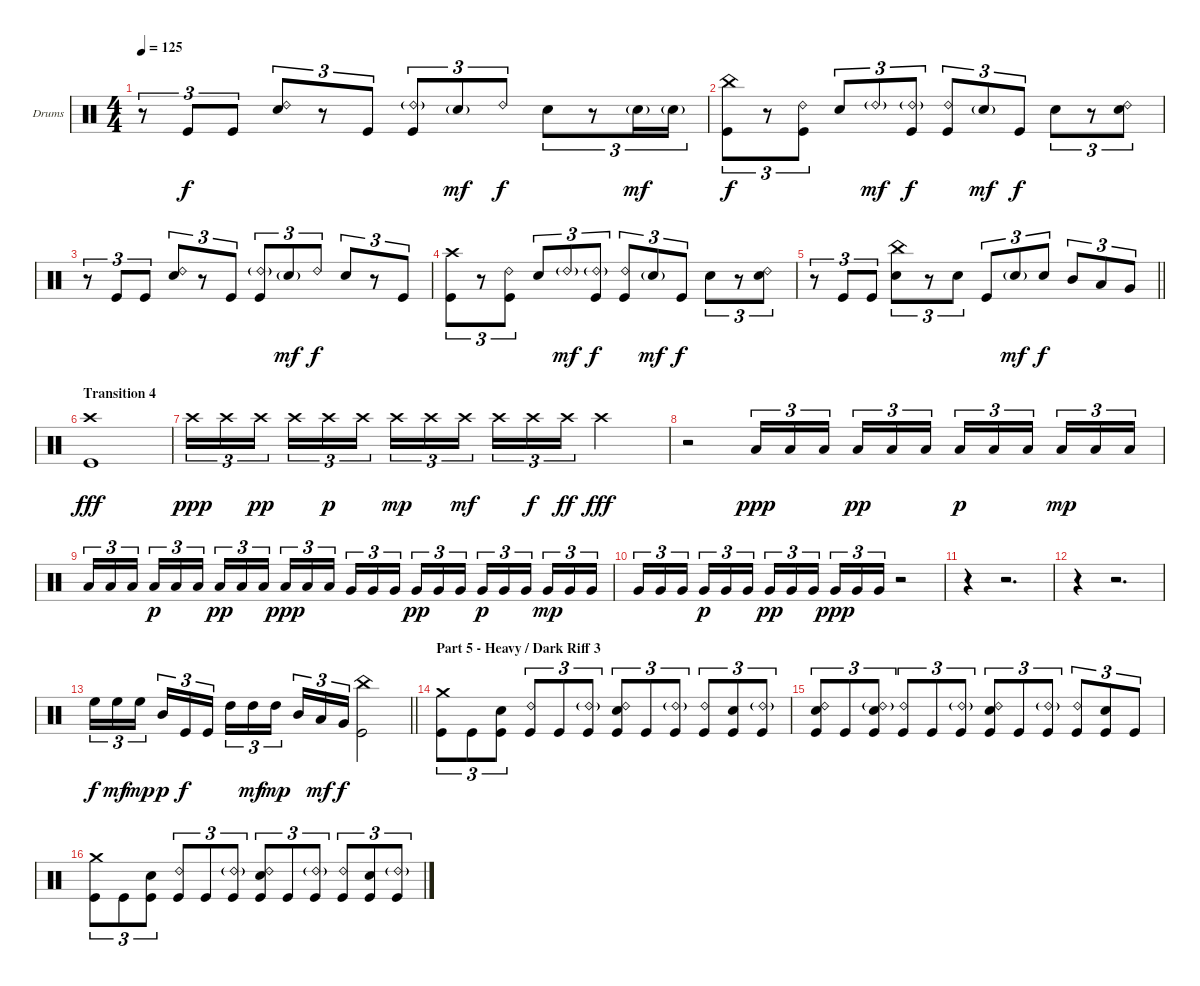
\bracketExtendMode nobrackets
\firstSystemTrackNameOrientation horizontal
\otherSystemsTrackNameOrientation horizontal
\track ("Drumkit" "Drums") {instrument percussion}
\staff {score}
\articulation defaults
\ts (4 4)
\tempo 125
\clef neutral
\ks c
r.8{tu (3 2) dy f} "Kick (hit)".8{tu (3 2)} "Kick (hit)".8{tu (3 2)} ("Ride (bell) 2" "Snare (hit) 2").8{tu (3 2)} r.8{tu (3 2)} "Kick (hit)".8{tu (3 2)} ("Ride (bell) 2"{g} "Kick (hit)").8{tu (3 2)} "Snare (hit) 2"{g}.8{tu (3 2) dy mf} "Ride (bell) 2".8{tu (3 2) dy f} "Snare (hit) 2".8{tu (3 2)} r.8{tu (3 2)} "Snare (hit) 2"{g}.16{tu (3 2) dy mf} "Snare (hit) 2"{g}.16{tu (3 2)} |
("China (hit)" "Kick (hit)").8{tu (3 2) dy f} r.8{tu (3 2)} ("Ride (bell) 2" "Kick (hit)").8{tu (3 2)} "Snare (hit) 2".8{tu (3 2)} "Ride (bell) 2"{g}.8{tu (3 2) dy mf} ("Ride (bell) 2"{g} "Kick (hit)").8{tu (3 2) dy f} ("Ride (bell) 2" "Kick (hit)").8{tu (3 2)} "Snare (hit) 2"{g}.8{tu (3 2) dy mf} "Kick (hit)".8{tu (3 2) dy f} "Snare (hit) 2".8{tu (3 2)} r.8{tu (3 2)} ("Ride (bell) 2" "Snare (hit) 2").8{tu (3 2)} |
r.8{tu (3 2)} "Kick (hit)".8{tu (3 2)} "Kick (hit)".8{tu (3 2)} ("Ride (bell) 2" "Snare (hit) 2").8{tu (3 2)} r.8{tu (3 2)} "Kick (hit)".8{tu (3 2)} ("Ride (bell) 2"{g} "Kick (hit)").8{tu (3 2)} "Snare (hit) 2"{g}.8{tu (3 2) dy mf} "Ride (bell) 2".8{tu (3 2) dy f} "Snare (hit) 2".8{tu (3 2)} r.8{tu (3 2)} "Kick (hit)".8{tu (3 2)} |
("Crash high (hit)" "Kick (hit)").8{tu (3 2)} r.8{tu (3 2)} ("Ride (bell) 2" "Kick (hit)").8{tu (3 2)} "Snare (hit) 2".8{tu (3 2)} "Ride (bell) 2"{g}.8{tu (3 2) dy mf} ("Ride (bell) 2"{g} "Kick (hit)").8{tu (3 2) dy f} ("Ride (bell) 2" "Kick (hit)").8{tu (3 2)} "Snare (hit) 2"{g}.8{tu (3 2) dy mf} "Kick (hit)".8{tu (3 2) dy f} "Snare (hit) 2".8{tu (3 2)} r.8{tu (3 2)} ("Ride (bell) 2" "Snare (hit) 2").8{tu (3 2)} |
\barLineRight lightlight
r.8{tu (3 2)} "Kick (hit)".8{tu (3 2)} "Kick (hit)".8{tu (3 2)} ("China (hit)" "Snare (hit) 2").8{tu (3 2)} r.8{tu (3 2)} "Snare (hit) 2".8{tu (3 2)} "Kick (hit)".8{tu (3 2)} "Snare (hit) 2"{g}.8{tu (3 2) dy mf} "Snare (hit) 2".8{tu (3 2) dy f} "Mid Tom (hit)".8{tu (3 2)} "Low Tom (hit)".8{tu (3 2)} "Very Low Tom (hit)".8{tu (3 2)} |
\section ("" "Transition 4")
("Crash high (hit)" "Kick (hit)").1{dy fff} |
"Crash high (hit)".16{tu (3 2) dy ppp} "Crash high (hit)".16{tu (3 2)} "Crash high (hit)".16{tu (3 2) dy pp} "Crash high (hit)".16{tu (3 2)} "Crash high (hit)".16{tu (3 2) dy p} "Crash high (hit)".16{tu (3 2)} "Crash high (hit)".16{tu (3 2) dy mp} "Crash high (hit)".16{tu (3 2)} "Crash high (hit)".16{tu (3 2) dy mf} "Crash high (hit)".16{tu (3 2)} "Crash high (hit)".16{tu (3 2) dy f} "Crash high (hit)".16{tu (3 2) dy ff} "Crash high (hit)".2{dy fff} |
r.2 "Low Tom (hit)".16{tu (3 2) dy ppp} "Low Tom (hit)".16{tu (3 2)} "Low Tom (hit)".16{tu (3 2)} "Low Tom (hit)".16{tu (3 2) dy pp} "Low Tom (hit)".16{tu (3 2)} "Low Tom (hit)".16{tu (3 2)} "Low Tom (hit)".16{tu (3 2) dy p} "Low Tom (hit)".16{tu (3 2)} "Low Tom (hit)".16{tu (3 2)} "Low Tom (hit)".16{tu (3 2) dy mp} "Low Tom (hit)".16{tu (3 2)} "Low Tom (hit)".16{tu (3 2)} |
"Low Tom (hit)".16{tu (3 2)} "Low Tom (hit)".16{tu (3 2)} "Low Tom (hit)".16{tu (3 2)} "Low Tom (hit)".16{tu (3 2) dy p} "Low Tom (hit)".16{tu (3 2)} "Low Tom (hit)".16{tu (3 2)} "Low Tom (hit)".16{tu (3 2) dy pp} "Low Tom (hit)".16{tu (3 2)} "Low Tom (hit)".16{tu (3 2)} "Low Tom (hit)".16{tu (3 2) dy ppp} "Low Tom (hit)".16{tu (3 2)} "Low Tom (hit)".16{tu (3 2)} "Very Low Tom (hit)".16{tu (3 2)} "Very Low Tom (hit)".16{tu (3 2)} "Very Low Tom (hit)".16{tu (3 2)} "Very Low Tom (hit)".16{tu (3 2) dy pp} "Very Low Tom (hit)".16{tu (3 2)} "Very Low Tom (hit)".16{tu (3 2)} "Very Low Tom (hit)".16{tu (3 2) dy p} "Very Low Tom (hit)".16{tu (3 2)} "Very Low Tom (hit)".16{tu (3 2)} "Very Low Tom (hit)".16{tu (3 2) dy mp} "Very Low Tom (hit)".16{tu (3 2)} "Very Low Tom (hit)".16{tu (3 2)} |
"Very Low Tom (hit)".16{tu (3 2)} "Very Low Tom (hit)".16{tu (3 2)} "Very Low Tom (hit)".16{tu (3 2)} "Very Low Tom (hit)".16{tu (3 2) dy p} "Very Low Tom (hit)".16{tu (3 2)} "Very Low Tom (hit)".16{tu (3 2)} "Very Low Tom (hit)".16{tu (3 2) dy pp} "Very Low Tom (hit)".16{tu (3 2)} "Very Low Tom (hit)".16{tu (3 2)} "Very Low Tom (hit)".16{tu (3 2) dy ppp} "Very Low Tom (hit)".16{tu (3 2)} "Very Low Tom (hit)".16{tu (3 2)} r.2 |
r.4 r.2{d} |
r.4 r.2{d} |
\barLineRight lightlight "High Floor Tom (hit)".16{tu (3 2) dy f} "High Floor Tom (hit)".16{tu (3 2) dy mf} "High Floor Tom (hit)".16{tu (3 2) dy mp} "Mid Tom (hit)".16{tu (3 2) dy p} "Kick (hit)".16{tu (3 2) dy f} "Kick (hit)".16{tu (3 2)} "High Tom (hit)".16{tu (3 2)} "High Tom (hit)".16{tu (3 2) dy mf} "High Tom (hit)".16{tu (3 2) dy mp} "Mid Tom (hit)".16{tu (3 2)} "Low Tom (hit)".16{tu (3 2) dy mf} "Very Low Tom (hit)".16{tu (3 2) dy f}
("China (hit)" "Kick (hit)").2 |
\section ("" "Part 5 - Heavy / Dark Riff 3")
("Crash medium (hit)" "Kick (hit)").8{tu (3 2)} "Kick (hit)".8{tu (3 2)} ("Snare (hit) 2" "Kick (hit)").8{tu (3 2)} ("Ride (bell) 2" "Kick (hit)").8{tu (3 2)} "Kick (hit)".8{tu (3 2)} ("Ride (bell) 2"{g} "Kick (hit)").8{tu (3 2)} ("Ride (bell) 2" "Snare (hit) 2" "Kick (hit)").8{tu (3 2)} "Kick (hit)".8{tu (3 2)} ("Ride (bell) 2"{g} "Kick (hit)").8{tu (3 2)} ("Ride (bell) 2" "Kick (hit)").8{tu (3 2)} ("Snare (hit) 2" "Kick (hit)").8{tu (3 2)} ("Ride (bell) 2"{g} "Kick (hit)").8{tu (3 2)} |
("Ride (bell) 2" "Snare (hit) 2" "Kick (hit)").8{tu (3 2)} "Kick (hit)".8{tu (3 2)} ("Ride (bell) 2"{g} "Snare (hit) 2" "Kick (hit)").8{tu (3 2)} ("Ride (bell) 2" "Kick (hit)").8{tu (3 2)} "Kick (hit)".8{tu (3 2)} ("Ride (bell) 2"{g} "Kick (hit)").8{tu (3 2)} ("Ride (bell) 2" "Snare (hit) 2" "Kick (hit)").8{tu (3 2)} "Kick (hit)".8{tu (3 2)} ("Ride (bell) 2"{g} "Kick (hit)").8{tu (3 2)} ("Ride (bell) 2" "Kick (hit)").8{tu (3 2)} ("Snare (hit) 2" "Kick (hit)").8{tu (3 2)} "Kick (hit)".8{tu (3 2)} |
("Crash medium (hit)" "Kick (hit)").8{tu (3 2)} "Kick (hit)".8{tu (3 2)} ("Snare (hit) 2" "Kick (hit)").8{tu (3 2)} ("Ride (bell) 2" "Kick (hit)").8{tu (3 2)} "Kick (hit)".8{tu (3 2)} ("Ride (bell) 2"{g} "Kick (hit)").8{tu (3 2)} ("Ride (bell) 2" "Snare (hit) 2" "Kick (hit)").8{tu (3 2)} "Kick (hit)".8{tu (3 2)} ("Ride (bell) 2"{g} "Kick (hit)").8{tu (3 2)} ("Ride (bell) 2" "Kick (hit)").8{tu (3 2)} ("Snare (hit) 2" "Kick (hit)").8{tu (3 2)} ("Ride (bell) 2"{g} "Kick (hit)").8{tu (3 2)}
